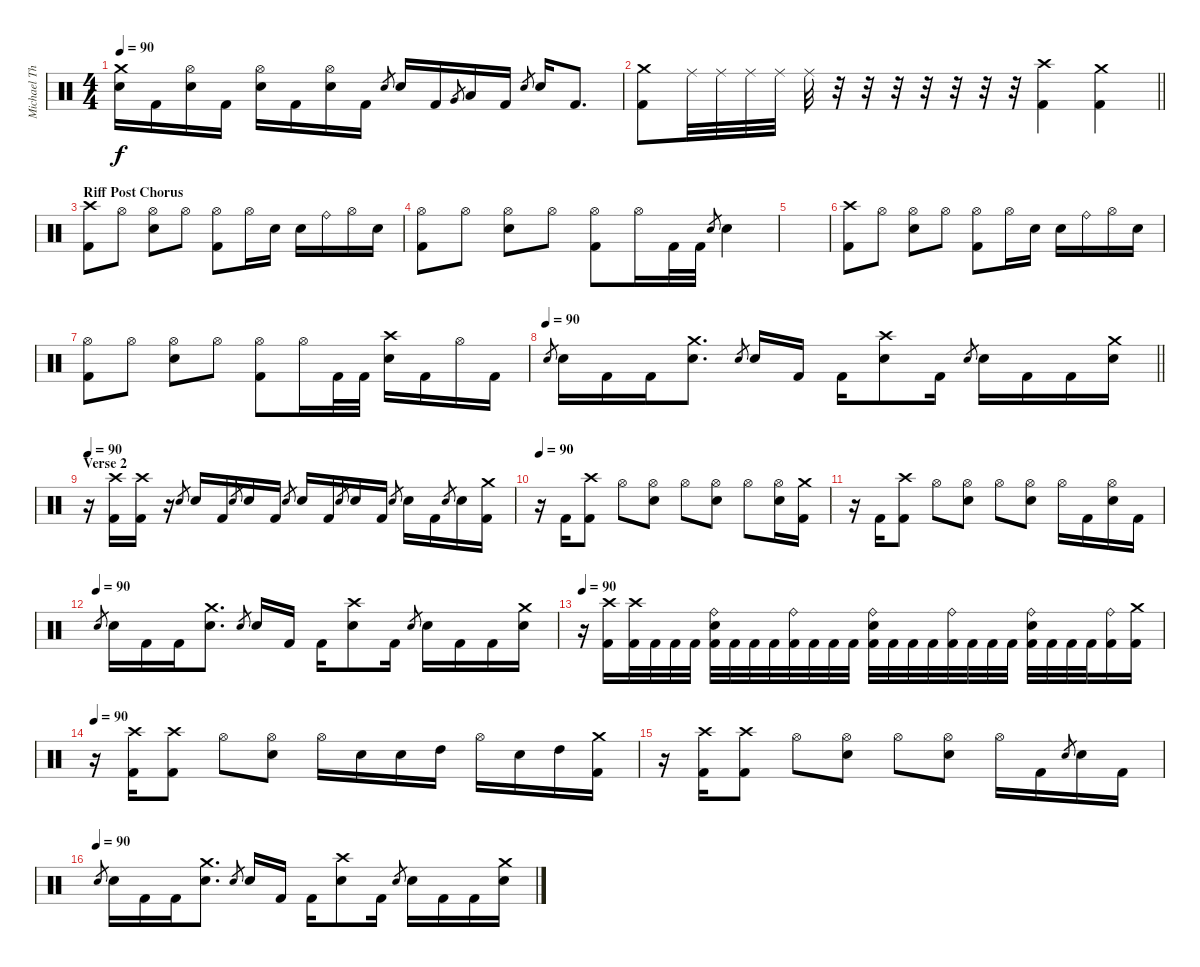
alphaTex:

\track ("Michael Thomas" "Michael Th") {instrument percussion}
\staff {score}
\articulation defaults
\ts (4 4)
\tempo 90
\clef neutral
\ks c
("Crash medium (hit)" "Electric Snare (hit)").16{dy f} "Kick (hit) 2".16 ("Hi-Hat (open)" "Electric Snare (hit)").16 "Kick (hit) 2".16 ("Hi-Hat (open)" "Electric Snare (hit)").16 "Kick (hit) 2".16 ("Hi-Hat (open)" "Electric Snare (hit)").16 "Kick (hit) 2".16 "Electric Snare (hit)".8{gr} "Electric Snare (hit)".16 "Kick (hit) 2".16 "Very Low Tom (hit)".8{gr} "Low Floor Tom (hit)".16 "Kick (hit) 2".16 "Electric Snare (hit)".8{gr} "Electric Snare (hit)".16 "Kick (hit) 2".8{d} |
\barLineRight lightlight
("Crash medium (hit)" "Kick (hit) 2").8 "Ride (middle)".32 "Ride (middle)".32 "Ride (middle)".32 "Ride (middle)".32 "Ride (middle)".32 r.32 r.32 r.32 r.32 r.32 r.32 r.32 ("Crash high (hit)" "Kick (hit) 2").4 ("Crash medium (hit)" "Kick (hit) 2").4 |
\section ("" "Riff Post Chorus")
("Crash high (hit)" "Kick (hit) 2").8 "Hi-Hat (open)".8 ("Hi-Hat (open)" "Electric Snare (hit)").8 "Hi-Hat (open)".8 ("Hi-Hat (open)" "Kick (hit) 2").8 "Hi-Hat (open)".16 "Electric Snare (hit)".16 "Electric Snare (hit)".16 "Ride (bell)".16 "Hi-Hat (open)".16 "Electric Snare (hit)".16 |
("Hi-Hat (open)" "Kick (hit) 2").8 "Hi-Hat (open)".8 ("Hi-Hat (open)" "Electric Snare (hit)").8 "Hi-Hat (open)".8 ("Hi-Hat (open)" "Kick (hit) 2").8 "Hi-Hat (open)".16 "Kick (hit) 2".32 "Kick (hit) 2".32 "Electric Snare (hit)".8{gr} "Electric Snare (hit)".4 |
|
("Crash high (hit)" "Kick (hit) 2").8 "Hi-Hat (open)".8 ("Hi-Hat (open)" "Electric Snare (hit)").8 "Hi-Hat (open)".8 ("Hi-Hat (open)" "Kick (hit) 2").8 "Hi-Hat (open)".16 "Electric Snare (hit)".16 "Electric Snare (hit)".16 "Ride (bell)".16 "Hi-Hat (open)".16 "Electric Snare (hit)".16 |
("Hi-Hat (open)" "Kick (hit) 2").8 "Hi-Hat (open)".8 ("Hi-Hat (open)" "Electric Snare (hit)").8 "Hi-Hat (open)".8 ("Hi-Hat (open)" "Kick (hit) 2").8 "Hi-Hat (open)".16 "Kick (hit) 2".32 "Kick (hit) 2".32 ("Crash high (hit)" "Electric Snare (hit)").16 "Kick (hit) 2".16 "Hi-Hat (open)".16 "Kick (hit) 2".16 |
\tempo 90
\barLineRight lightlight "Electric Snare (hit)".8{gr} "Electric Snare (hit)".16 "Kick (hit) 2".16 "Kick (hit) 2".16
("Crash medium (hit)" "Electric Snare (hit)").8{d} "Electric Snare (hit)".8{gr} "Electric Snare (hit)".16 "Kick (hit) 2".16 "Kick (hit) 2".16 ("Crash high (hit)" "Electric Snare (hit)").8 "Kick (hit) 2".16 "Electric Snare (hit)".8{gr} "Electric Snare (hit)".16 "Kick (hit) 2".16 "Kick (hit) 2".16 ("Crash medium (hit)" "Electric Snare (hit)").16 |
\section ("" "Verse 2")
\tempo 90
r.16 ("Crash high (hit)" "Kick (hit) 2").16 ("Crash high (hit)" "Kick (hit) 2").16 r.16 "Electric Snare (hit)".8{gr} "Electric Snare (hit)".16 "Kick (hit) 2".16 "Electric Snare (hit)".8{gr} "Electric Snare (hit)".16 "Kick (hit) 2".16 "Electric Snare (hit)".8{gr} "Electric Snare (hit)".16 "Kick (hit) 2".16 "Electric Snare (hit)".8{gr} "Electric Snare (hit)".16 "Kick (hit) 2".16 "Electric Snare (hit)".8{gr} "Electric Snare (hit)".16 "Kick (hit) 2".16 "Electric Snare (hit)".8{gr} "Electric Snare (hit)".16 ("Crash medium (hit)" "Kick (hit) 2").16 |
\tempo 90
r.16 "Kick (hit) 2".16 ("Crash high (hit)" "Kick (hit) 2").8 "Hi-Hat (open)".8 ("Hi-Hat (open)" "Electric Snare (hit)").8 "Hi-Hat (open)".8 ("Hi-Hat (open)" "Electric Snare (hit)").8 "Hi-Hat (open)".8 ("Hi-Hat (open)" "Electric Snare (hit)").16 ("Crash medium (hit)" "Kick (hit) 2").16 |
r.16 "Kick (hit) 2".16 ("Crash high (hit)" "Kick (hit) 2").8 "Hi-Hat (open)".8 ("Hi-Hat (open)" "Electric Snare (hit)").8 "Hi-Hat (open)".8 ("Hi-Hat (open)" "Electric Snare (hit)").8 "Hi-Hat (open)".16 "Kick (hit) 2".16 ("Hi-Hat (open)" "Electric Snare (hit)").16 "Kick (hit) 2".16 |
\tempo (90)
"Electric Snare (hit)".8{gr} "Electric Snare (hit)".16 "Kick (hit) 2".16 "Kick (hit) 2".16 ("Crash medium (hit)" "Electric Snare (hit)").8{d} "Electric Snare (hit)".8{gr} "Electric Snare (hit)".16 "Kick (hit) 2".16 "Kick (hit) 2".16 ("Crash high (hit)" "Electric Snare (hit)").8 "Kick (hit) 2".16 "Electric Snare (hit)".8{gr} "Electric Snare (hit)".16 "Kick (hit) 2".16 "Kick (hit) 2".16 ("Crash medium (hit)" "Electric Snare (hit)").16 |
\tempo 90
r.16 ("Crash high (hit)" "Kick (hit) 2").16 ("Crash high (hit)" "Kick (hit) 2").32 "Kick (hit) 2".32 "Kick (hit) 2".32 "Kick (hit) 2".32 ("Ride (bell)" "Electric Snare (hit)" "Kick (hit) 2").32 "Kick (hit) 2".32 "Kick (hit) 2".32 "Kick (hit) 2".32 ("Ride (bell)" "Kick (hit) 2").32 "Kick (hit) 2".32 "Kick (hit) 2".32 "Kick (hit) 2".32 ("Ride (bell)" "Electric Snare (hit)" "Kick (hit) 2").32 "Kick (hit) 2".32 "Kick (hit) 2".32 "Kick (hit) 2".32 ("Ride (bell)" "Kick (hit) 2").32 "Kick (hit) 2".32 "Kick (hit) 2".32 "Kick (hit) 2".32 ("Ride (bell)" "Electric Snare (hit)" "Kick (hit) 2").32 "Kick (hit) 2".32 "Kick (hit) 2".32 "Kick (hit) 2".32 ("Ride (bell)" "Kick (hit) 2").16 ("Crash medium (hit)" "Kick (hit) 2").16 |
\tempo 90
r.16 ("Crash high (hit)" "Kick (hit) 2").16 ("Crash high (hit)" "Kick (hit) 2").8 "Hi-Hat (open)".8 ("Hi-Hat (open)" "Electric Snare (hit)").8 "Hi-Hat (open)".16 "Electric Snare (hit)".16 "Electric Snare (hit)".16 "High Tom (hit)".16 "Hi-Hat (open)".16 "Electric Snare (hit)".16 "High Tom (hit)".16 ("Crash medium (hit)" "Kick (hit) 2").16 |
r.16 ("Crash high (hit)" "Kick (hit) 2").16 ("Crash high (hit)" "Kick (hit) 2").8 "Hi-Hat (open)".8 ("Hi-Hat (open)" "Electric Snare (hit)").8 "Hi-Hat (open)".8 ("Hi-Hat (open)" "Electric Snare (hit)").8 "Hi-Hat (open)".16 "Kick (hit) 2".16 "Electric Snare (hit)".8{gr} "Electric Snare (hit)".16 "Kick (hit) 2".16 |
\tempo (90)
"Electric Snare (hit)".8{gr} "Electric Snare (hit)".16 "Kick (hit) 2".16 "Kick (hit) 2".16 ("Crash medium (hit)" "Electric Snare (hit)").8{d} "Electric Snare (hit)".8{gr} "Electric Snare (hit)".16 "Kick (hit) 2".16 "Kick (hit) 2".16 ("Crash high (hit)" "Electric Snare (hit)").8 "Kick (hit) 2".16 "Electric Snare (hit)".8{gr} "Electric Snare (hit)".16 "Kick (hit) 2".16 "Kick (hit) 2".16 ("Crash medium (hit)" "Electric Snare (hit)").16
